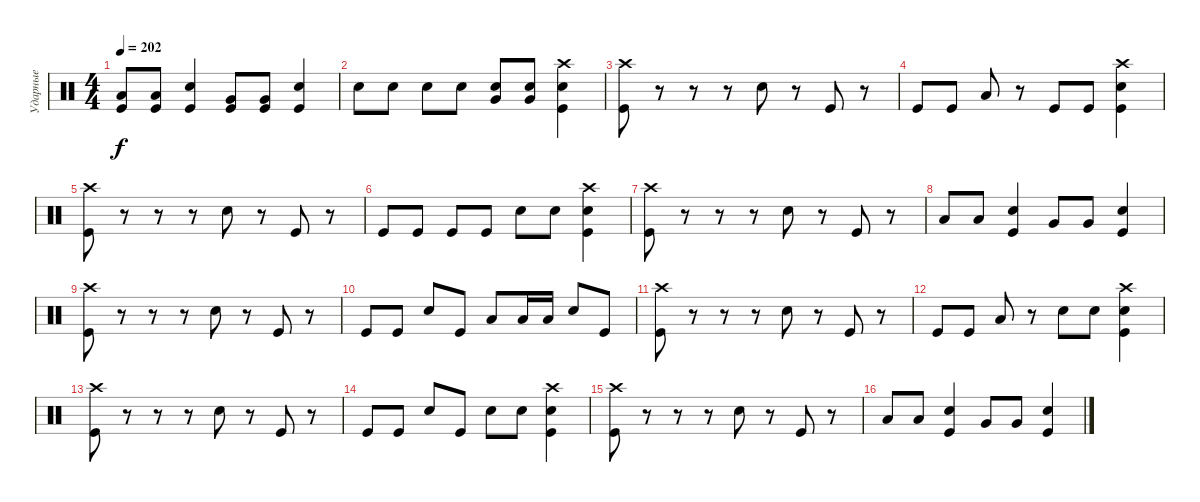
\track ("Ударные" "Ударные") {instrument percussion}
\staff {score}
\articulation defaults
\ts (4 4)
\tempo 202
\clef neutral
\ks c
("Low Tom (hit)" "Kick (hit)").8{dy f} ("Low Tom (hit)" "Kick (hit)").8 ("Electric Snare (hit)" "Kick (hit)").4 ("Very Low Tom (hit)" "Kick (hit)").8 ("Very Low Tom (hit)" "Kick (hit)").8 ("Electric Snare (hit)" "Kick (hit)").4 |
"Electric Snare (hit)".8 "Electric Snare (hit)".8 "Electric Snare (hit)".8 "Electric Snare (hit)".8 ("Very Low Tom (hit)" "Electric Snare (hit)").8 ("Very Low Tom (hit)" "Electric Snare (hit)").8 ("Crash high (hit)" "Electric Snare (hit)" "Kick (hit)").4 |
("Crash high (hit)" "Kick (hit)").8 r.8 r.8 r.8 "Electric Snare (hit)".8 r.8 "Kick (hit)".8 r.8 |
"Kick (hit)".8 "Kick (hit)".8 "Low Tom (hit)".8 r.8 "Kick (hit)".8 "Kick (hit)".8 ("Crash high (hit)" "Electric Snare (hit)" "Kick (hit)").4 |
("Crash high (hit)" "Kick (hit)").8 r.8 r.8 r.8 "Electric Snare (hit)".8 r.8 "Kick (hit)".8 r.8 |
"Kick (hit)".8 "Kick (hit)".8 "Kick (hit)".8 "Kick (hit)".8 "Electric Snare (hit)".8 "Electric Snare (hit)".8 ("Crash high (hit)" "Electric Snare (hit)" "Kick (hit)").4 |
("Crash high (hit)" "Kick (hit)").8 r.8 r.8 r.8 "Electric Snare (hit)".8 r.8 "Kick (hit)".8 r.8 |
"Low Tom (hit)".8 "Low Tom (hit)".8 ("Electric Snare (hit)" "Kick (hit)").4 "Very Low Tom (hit)".8 "Very Low Tom (hit)".8 ("Electric Snare (hit)" "Kick (hit)").4 |
("Crash high (hit)" "Kick (hit)").8 r.8 r.8 r.8 "Electric Snare (hit)".8 r.8 "Kick (hit)".8 r.8 |
"Kick (hit)".8 "Kick (hit)".8 "Electric Snare (hit)".8 "Kick (hit)".8 "Low Tom (hit)".8 "Low Tom (hit)".16 "Low Tom (hit)".16 "Electric Snare (hit)".8 "Kick (hit)".8 |
("Crash high (hit)" "Kick (hit)").8 r.8 r.8 r.8 "Electric Snare (hit)".8 r.8 "Kick (hit)".8 r.8 |
"Kick (hit)".8 "Kick (hit)".8 "Low Tom (hit)".8 r.8 "Electric Snare (hit)".8 "Electric Snare (hit)".8 ("Crash high (hit)" "Electric Snare (hit)" "Kick (hit)").4 |
("Crash high (hit)" "Kick (hit)").8 r.8 r.8 r.8 "Electric Snare (hit)".8 r.8 "Kick (hit)".8 r.8 |
"Kick (hit)".8 "Kick (hit)".8 "Electric Snare (hit)".8 "Kick (hit)".8 "Electric Snare (hit)".8 "Electric Snare (hit)".8 ("Crash high (hit)" "Electric Snare (hit)" "Kick (hit)").4 |
("Crash high (hit)" "Kick (hit)").8 r.8 r.8 r.8 "Electric Snare (hit)".8 r.8 "Kick (hit)".8 r.8 |
"Low Tom (hit)".8 "Low Tom (hit)".8 ("Electric Snare (hit)" "Kick (hit)").4 "Very Low Tom (hit)".8 "Very Low Tom (hit)".8 ("Electric Snare (hit)" "Kick (hit)").4
